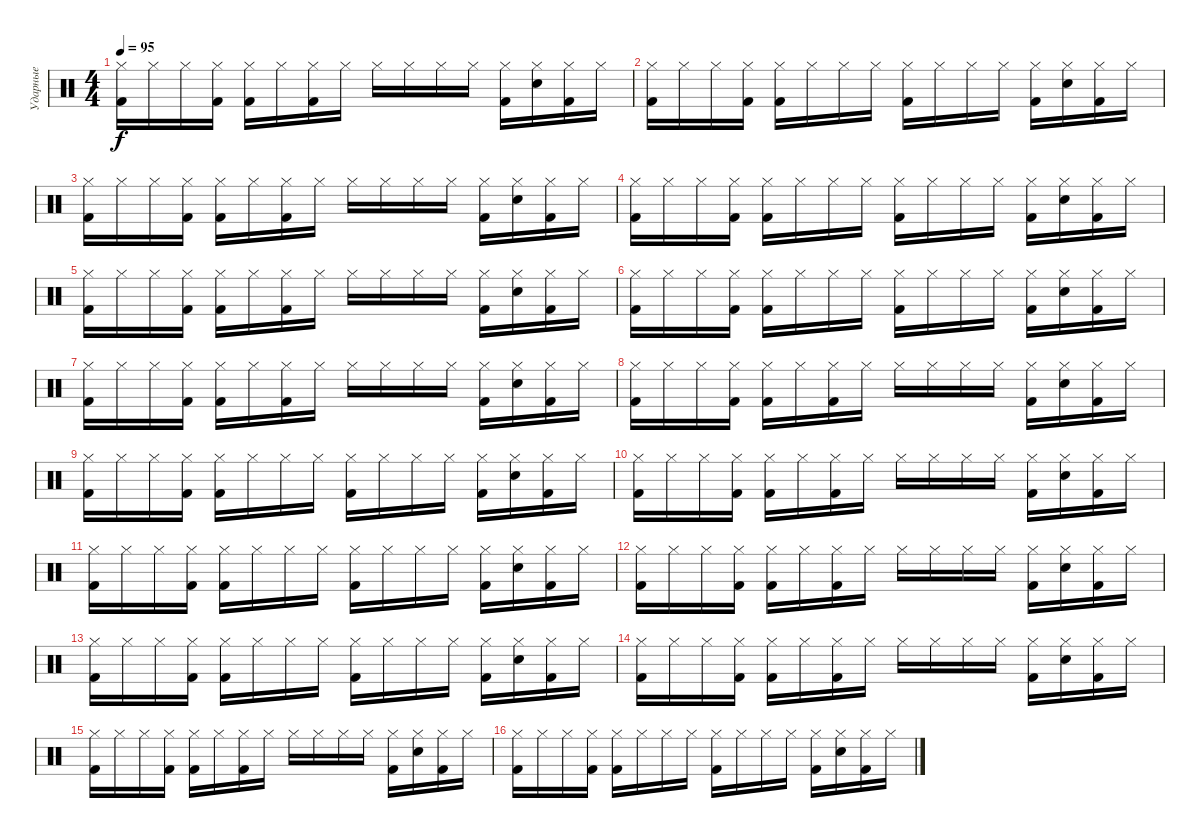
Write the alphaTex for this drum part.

\track ("Ударные" "Ударные") {instrument percussion}
\staff {score}
\articulation defaults
\ts (4 4)
\tempo 95
\clef neutral
\ks c
("Hi-Hat (closed)" "Kick (hit) 2").16{dy f} "Hi-Hat (closed)".16 "Hi-Hat (closed)".16 ("Hi-Hat (closed)" "Kick (hit) 2").16 ("Hi-Hat (closed)" "Kick (hit) 2").16 "Hi-Hat (closed)".16 ("Hi-Hat (closed)" "Kick (hit) 2").16 "Hi-Hat (closed)".16 "Hi-Hat (closed)".16 "Hi-Hat (closed)".16 "Hi-Hat (closed)".16 "Hi-Hat (closed)".16 ("Hi-Hat (closed)" "Kick (hit) 2").16 ("Hi-Hat (closed)" "Snare (hit)").16 ("Hi-Hat (closed)" "Kick (hit) 2").16 "Hi-Hat (closed)".16 |
("Hi-Hat (closed)" "Kick (hit) 2").16 "Hi-Hat (closed)".16 "Hi-Hat (closed)".16 ("Hi-Hat (closed)" "Kick (hit) 2").16 ("Hi-Hat (closed)" "Kick (hit) 2").16 "Hi-Hat (closed)".16 "Hi-Hat (closed)".16 "Hi-Hat (closed)".16 ("Hi-Hat (closed)" "Kick (hit) 2").16 "Hi-Hat (closed)".16 "Hi-Hat (closed)".16 "Hi-Hat (closed)".16 ("Hi-Hat (closed)" "Kick (hit) 2").16 ("Hi-Hat (closed)" "Snare (hit)").16 ("Hi-Hat (closed)" "Kick (hit) 2").16 "Hi-Hat (closed)".16 |
("Hi-Hat (closed)" "Kick (hit) 2").16 "Hi-Hat (closed)".16 "Hi-Hat (closed)".16 ("Hi-Hat (closed)" "Kick (hit) 2").16 ("Hi-Hat (closed)" "Kick (hit) 2").16 "Hi-Hat (closed)".16 ("Hi-Hat (closed)" "Kick (hit) 2").16 "Hi-Hat (closed)".16 "Hi-Hat (closed)".16 "Hi-Hat (closed)".16 "Hi-Hat (closed)".16 "Hi-Hat (closed)".16 ("Hi-Hat (closed)" "Kick (hit) 2").16 ("Hi-Hat (closed)" "Snare (hit)").16 ("Hi-Hat (closed)" "Kick (hit) 2").16 "Hi-Hat (closed)".16 |
("Hi-Hat (closed)" "Kick (hit) 2").16 "Hi-Hat (closed)".16 "Hi-Hat (closed)".16 ("Hi-Hat (closed)" "Kick (hit) 2").16 ("Hi-Hat (closed)" "Kick (hit) 2").16 "Hi-Hat (closed)".16 "Hi-Hat (closed)".16 "Hi-Hat (closed)".16 ("Hi-Hat (closed)" "Kick (hit) 2").16 "Hi-Hat (closed)".16 "Hi-Hat (closed)".16 "Hi-Hat (closed)".16 ("Hi-Hat (closed)" "Kick (hit) 2").16 ("Hi-Hat (closed)" "Snare (hit)").16 ("Hi-Hat (closed)" "Kick (hit) 2").16 "Hi-Hat (closed)".16 |
("Hi-Hat (closed)" "Kick (hit) 2").16 "Hi-Hat (closed)".16 "Hi-Hat (closed)".16 ("Hi-Hat (closed)" "Kick (hit) 2").16 ("Hi-Hat (closed)" "Kick (hit) 2").16 "Hi-Hat (closed)".16 ("Hi-Hat (closed)" "Kick (hit) 2").16 "Hi-Hat (closed)".16 "Hi-Hat (closed)".16 "Hi-Hat (closed)".16 "Hi-Hat (closed)".16 "Hi-Hat (closed)".16 ("Hi-Hat (closed)" "Kick (hit) 2").16 ("Hi-Hat (closed)" "Snare (hit)").16 ("Hi-Hat (closed)" "Kick (hit) 2").16 "Hi-Hat (closed)".16 |
("Hi-Hat (closed)" "Kick (hit) 2").16 "Hi-Hat (closed)".16 "Hi-Hat (closed)".16 ("Hi-Hat (closed)" "Kick (hit) 2").16 ("Hi-Hat (closed)" "Kick (hit) 2").16 "Hi-Hat (closed)".16 "Hi-Hat (closed)".16 "Hi-Hat (closed)".16 ("Hi-Hat (closed)" "Kick (hit) 2").16 "Hi-Hat (closed)".16 "Hi-Hat (closed)".16 "Hi-Hat (closed)".16 ("Hi-Hat (closed)" "Kick (hit) 2").16 ("Hi-Hat (closed)" "Snare (hit)").16 ("Hi-Hat (closed)" "Kick (hit) 2").16 "Hi-Hat (closed)".16 |
("Hi-Hat (closed)" "Kick (hit) 2").16 "Hi-Hat (closed)".16 "Hi-Hat (closed)".16 ("Hi-Hat (closed)" "Kick (hit) 2").16 ("Hi-Hat (closed)" "Kick (hit) 2").16 "Hi-Hat (closed)".16 ("Hi-Hat (closed)" "Kick (hit) 2").16 "Hi-Hat (closed)".16 "Hi-Hat (closed)".16 "Hi-Hat (closed)".16 "Hi-Hat (closed)".16 "Hi-Hat (closed)".16 ("Hi-Hat (closed)" "Kick (hit) 2").16 ("Hi-Hat (closed)" "Snare (hit)").16 ("Hi-Hat (closed)" "Kick (hit) 2").16 "Hi-Hat (closed)".16 |
("Hi-Hat (closed)" "Kick (hit) 2").16 "Hi-Hat (closed)".16 "Hi-Hat (closed)".16 ("Hi-Hat (closed)" "Kick (hit) 2").16 ("Hi-Hat (closed)" "Kick (hit) 2").16 "Hi-Hat (closed)".16 ("Hi-Hat (closed)" "Kick (hit) 2").16 "Hi-Hat (closed)".16 "Hi-Hat (closed)".16 "Hi-Hat (closed)".16 "Hi-Hat (closed)".16 "Hi-Hat (closed)".16 ("Hi-Hat (closed)" "Kick (hit) 2").16 ("Hi-Hat (closed)" "Snare (hit)").16 ("Hi-Hat (closed)" "Kick (hit) 2").16 "Hi-Hat (closed)".16 |
("Hi-Hat (closed)" "Kick (hit) 2").16 "Hi-Hat (closed)".16 "Hi-Hat (closed)".16 ("Hi-Hat (closed)" "Kick (hit) 2").16 ("Hi-Hat (closed)" "Kick (hit) 2").16 "Hi-Hat (closed)".16 "Hi-Hat (closed)".16 "Hi-Hat (closed)".16 ("Hi-Hat (closed)" "Kick (hit) 2").16 "Hi-Hat (closed)".16 "Hi-Hat (closed)".16 "Hi-Hat (closed)".16 ("Hi-Hat (closed)" "Kick (hit) 2").16 ("Hi-Hat (closed)" "Snare (hit)").16 ("Hi-Hat (closed)" "Kick (hit) 2").16 "Hi-Hat (closed)".16 |
("Hi-Hat (closed)" "Kick (hit) 2").16 "Hi-Hat (closed)".16 "Hi-Hat (closed)".16 ("Hi-Hat (closed)" "Kick (hit) 2").16 ("Hi-Hat (closed)" "Kick (hit) 2").16 "Hi-Hat (closed)".16 ("Hi-Hat (closed)" "Kick (hit) 2").16 "Hi-Hat (closed)".16 "Hi-Hat (closed)".16 "Hi-Hat (closed)".16 "Hi-Hat (closed)".16 "Hi-Hat (closed)".16 ("Hi-Hat (closed)" "Kick (hit) 2").16 ("Hi-Hat (closed)" "Snare (hit)").16 ("Hi-Hat (closed)" "Kick (hit) 2").16 "Hi-Hat (closed)".16 |
("Hi-Hat (closed)" "Kick (hit) 2").16 "Hi-Hat (closed)".16 "Hi-Hat (closed)".16 ("Hi-Hat (closed)" "Kick (hit) 2").16 ("Hi-Hat (closed)" "Kick (hit) 2").16 "Hi-Hat (closed)".16 "Hi-Hat (closed)".16 "Hi-Hat (closed)".16 ("Hi-Hat (closed)" "Kick (hit) 2").16 "Hi-Hat (closed)".16 "Hi-Hat (closed)".16 "Hi-Hat (closed)".16 ("Hi-Hat (closed)" "Kick (hit) 2").16 ("Hi-Hat (closed)" "Snare (hit)").16 ("Hi-Hat (closed)" "Kick (hit) 2").16 "Hi-Hat (closed)".16 |
("Hi-Hat (closed)" "Kick (hit) 2").16 "Hi-Hat (closed)".16 "Hi-Hat (closed)".16 ("Hi-Hat (closed)" "Kick (hit) 2").16 ("Hi-Hat (closed)" "Kick (hit) 2").16 "Hi-Hat (closed)".16 ("Hi-Hat (closed)" "Kick (hit) 2").16 "Hi-Hat (closed)".16 "Hi-Hat (closed)".16 "Hi-Hat (closed)".16 "Hi-Hat (closed)".16 "Hi-Hat (closed)".16 ("Hi-Hat (closed)" "Kick (hit) 2").16 ("Hi-Hat (closed)" "Snare (hit)").16 ("Hi-Hat (closed)" "Kick (hit) 2").16 "Hi-Hat (closed)".16 |
("Hi-Hat (closed)" "Kick (hit) 2").16 "Hi-Hat (closed)".16 "Hi-Hat (closed)".16 ("Hi-Hat (closed)" "Kick (hit) 2").16 ("Hi-Hat (closed)" "Kick (hit) 2").16 "Hi-Hat (closed)".16 "Hi-Hat (closed)".16 "Hi-Hat (closed)".16 ("Hi-Hat (closed)" "Kick (hit) 2").16 "Hi-Hat (closed)".16 "Hi-Hat (closed)".16 "Hi-Hat (closed)".16 ("Hi-Hat (closed)" "Kick (hit) 2").16 ("Hi-Hat (closed)" "Snare (hit)").16 ("Hi-Hat (closed)" "Kick (hit) 2").16 "Hi-Hat (closed)".16 |
("Hi-Hat (closed)" "Kick (hit) 2").16 "Hi-Hat (closed)".16 "Hi-Hat (closed)".16 ("Hi-Hat (closed)" "Kick (hit) 2").16 ("Hi-Hat (closed)" "Kick (hit) 2").16 "Hi-Hat (closed)".16 ("Hi-Hat (closed)" "Kick (hit) 2").16 "Hi-Hat (closed)".16 "Hi-Hat (closed)".16 "Hi-Hat (closed)".16 "Hi-Hat (closed)".16 "Hi-Hat (closed)".16 ("Hi-Hat (closed)" "Kick (hit) 2").16 ("Hi-Hat (closed)" "Snare (hit)").16 ("Hi-Hat (closed)" "Kick (hit) 2").16 "Hi-Hat (closed)".16 |
("Hi-Hat (closed)" "Kick (hit) 2").16 "Hi-Hat (closed)".16 "Hi-Hat (closed)".16 ("Hi-Hat (closed)" "Kick (hit) 2").16 ("Hi-Hat (closed)" "Kick (hit) 2").16 "Hi-Hat (closed)".16 ("Hi-Hat (closed)" "Kick (hit) 2").16 "Hi-Hat (closed)".16 "Hi-Hat (closed)".16 "Hi-Hat (closed)".16 "Hi-Hat (closed)".16 "Hi-Hat (closed)".16 ("Hi-Hat (closed)" "Kick (hit) 2").16 ("Hi-Hat (closed)" "Snare (hit)").16 ("Hi-Hat (closed)" "Kick (hit) 2").16 "Hi-Hat (closed)".16 |
("Hi-Hat (closed)" "Kick (hit) 2").16 "Hi-Hat (closed)".16 "Hi-Hat (closed)".16 ("Hi-Hat (closed)" "Kick (hit) 2").16 ("Hi-Hat (closed)" "Kick (hit) 2").16 "Hi-Hat (closed)".16 "Hi-Hat (closed)".16 "Hi-Hat (closed)".16 ("Hi-Hat (closed)" "Kick (hit) 2").16 "Hi-Hat (closed)".16 "Hi-Hat (closed)".16 "Hi-Hat (closed)".16 ("Hi-Hat (closed)" "Kick (hit) 2").16 ("Hi-Hat (closed)" "Snare (hit)").16 ("Hi-Hat (closed)" "Kick (hit) 2").16 "Hi-Hat (closed)".16
